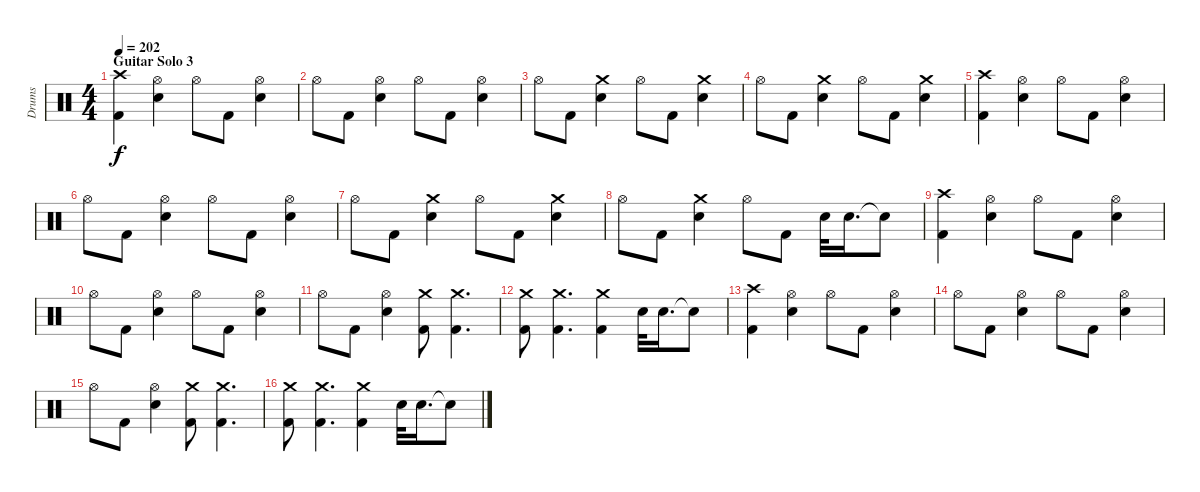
\track ("Drums" "Drums") {instrument percussion}
\staff {score}
\articulation defaults
\ts (4 4)
\section ("" "Guitar Solo 3")
\tempo 202
\clef neutral
\ks c
("Crash high (hit)" "Kick (hit) 2").4{dy f} ("Hi-Hat (open)" "Electric Snare (hit)").4 "Hi-Hat (open)".8 "Kick (hit) 2".8 ("Hi-Hat (open)" "Electric Snare (hit)").4 |
"Hi-Hat (open)".8 "Kick (hit) 2".8 ("Hi-Hat (open)" "Electric Snare (hit)").4 "Hi-Hat (open)".8 "Kick (hit) 2".8 ("Hi-Hat (open)" "Electric Snare (hit)").4 |
"Hi-Hat (open)".8 "Kick (hit) 2".8 ("Crash medium (hit)" "Electric Snare (hit)").4 "Hi-Hat (open)".8 "Kick (hit) 2".8 ("Crash medium (hit)" "Electric Snare (hit)").4 |
"Hi-Hat (open)".8 "Kick (hit) 2".8 ("Crash medium (hit)" "Electric Snare (hit)").4 "Hi-Hat (open)".8 "Kick (hit) 2".8 ("Crash medium (hit)" "Electric Snare (hit)").4 |
("Crash high (hit)" "Kick (hit) 2").4 ("Hi-Hat (open)" "Electric Snare (hit)").4 "Hi-Hat (open)".8 "Kick (hit) 2".8 ("Hi-Hat (open)" "Electric Snare (hit)").4 |
"Hi-Hat (open)".8 "Kick (hit) 2".8 ("Hi-Hat (open)" "Electric Snare (hit)").4 "Hi-Hat (open)".8 "Kick (hit) 2".8 ("Hi-Hat (open)" "Electric Snare (hit)").4 |
"Hi-Hat (open)".8 "Kick (hit) 2".8 ("Crash medium (hit)" "Electric Snare (hit)").4 "Hi-Hat (open)".8 "Kick (hit) 2".8 ("Crash medium (hit)" "Electric Snare (hit)").4 |
"Hi-Hat (open)".8 "Kick (hit) 2".8 ("Crash medium (hit)" "Electric Snare (hit)").4 "Hi-Hat (open)".8 "Kick (hit) 2".8 "Electric Snare (hit)".32 "Electric Snare (hit)".16{d} "Electric Snare (hit)"{t}.8 |
("Crash high (hit)" "Kick (hit) 2").4 ("Hi-Hat (open)" "Electric Snare (hit)").4 "Hi-Hat (open)".8 "Kick (hit) 2".8 ("Hi-Hat (open)" "Electric Snare (hit)").4 |
"Hi-Hat (open)".8 "Kick (hit) 2".8 ("Hi-Hat (open)" "Electric Snare (hit)").4 "Hi-Hat (open)".8 "Kick (hit) 2".8 ("Hi-Hat (open)" "Electric Snare (hit)").4 |
"Hi-Hat (open)".8 "Kick (hit) 2".8 ("Hi-Hat (open)" "Electric Snare (hit)").4 ("Crash medium (hit)" "Kick (hit) 2").8 ("Crash medium (hit)" "Kick (hit) 2").4{d} |
("Crash medium (hit)" "Kick (hit) 2").8 ("Crash medium (hit)" "Kick (hit) 2").4{d} ("Crash medium (hit)" "Kick (hit) 2").4 "Electric Snare (hit)".32 "Electric Snare (hit)".16{d} "Electric Snare (hit)"{t}.8 |
("Crash high (hit)" "Kick (hit) 2").4 ("Hi-Hat (open)" "Electric Snare (hit)").4 "Hi-Hat (open)".8 "Kick (hit) 2".8 ("Hi-Hat (open)" "Electric Snare (hit)").4 |
"Hi-Hat (open)".8 "Kick (hit) 2".8 ("Hi-Hat (open)" "Electric Snare (hit)").4 "Hi-Hat (open)".8 "Kick (hit) 2".8 ("Hi-Hat (open)" "Electric Snare (hit)").4 |
"Hi-Hat (open)".8 "Kick (hit) 2".8 ("Hi-Hat (open)" "Electric Snare (hit)").4 ("Crash medium (hit)" "Kick (hit) 2").8 ("Crash medium (hit)" "Kick (hit) 2").4{d} |
("Crash medium (hit)" "Kick (hit) 2").8 ("Crash medium (hit)" "Kick (hit) 2").4{d} ("Crash medium (hit)" "Kick (hit) 2").4 "Electric Snare (hit)".32 "Electric Snare (hit)".16{d} "Electric Snare (hit)"{t}.8
